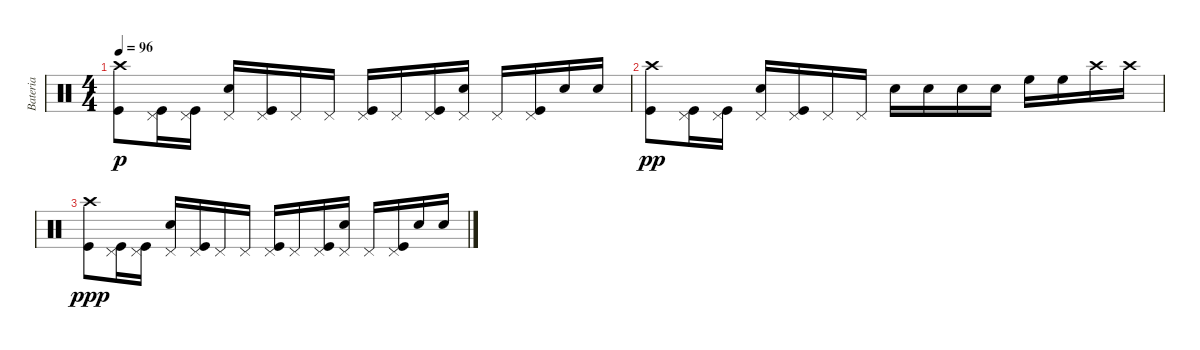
\track ("Bateria" "Bateria") {instrument percussion}
\staff {score}
\articulation defaults
\ts (4 4)
\tempo 96
\clef neutral
\ks c
("Kick (hit)" "Crash high (hit)").8{dy p} ("Kick (hit)" "Pedal Hi-Hat (hit)").16 ("Kick (hit)" "Pedal Hi-Hat (hit)").16 ("Snare (hit) 2" "Pedal Hi-Hat (hit)").16 ("Kick (hit)" "Pedal Hi-Hat (hit)").16 "Pedal Hi-Hat (hit)".16 "Pedal Hi-Hat (hit)".16 ("Kick (hit)" "Pedal Hi-Hat (hit)").16 "Pedal Hi-Hat (hit)".16 ("Kick (hit)" "Pedal Hi-Hat (hit)").16 ("Snare (hit) 2" "Pedal Hi-Hat (hit)").16 "Pedal Hi-Hat (hit)".16 ("Kick (hit)" "Pedal Hi-Hat (hit)").16 "Snare (hit) 2".16 "Snare (hit) 2".16 |
("Kick (hit)" "Crash high (hit)").8{dy pp} ("Kick (hit)" "Pedal Hi-Hat (hit)").16 ("Kick (hit)" "Pedal Hi-Hat (hit)").16 ("Snare (hit) 2" "Pedal Hi-Hat (hit)").16 ("Kick (hit)" "Pedal Hi-Hat (hit)").16 "Pedal Hi-Hat (hit)".16 "Pedal Hi-Hat (hit)".16 "Snare (hit) 2".16 "Snare (hit) 2".16 "Snare (hit) 2".16 "Snare (hit) 2".16 "High Floor Tom (hit)".16 "High Floor Tom (hit)".16 "Crash high (hit)".16 "Crash high (hit)".16 |
("Kick (hit)" "Crash high (hit)").8{dy ppp} ("Kick (hit)" "Pedal Hi-Hat (hit)").16 ("Kick (hit)" "Pedal Hi-Hat (hit)").16 ("Snare (hit) 2" "Pedal Hi-Hat (hit)").16 ("Kick (hit)" "Pedal Hi-Hat (hit)").16 "Pedal Hi-Hat (hit)".16 "Pedal Hi-Hat (hit)".16 ("Kick (hit)" "Pedal Hi-Hat (hit)").16 "Pedal Hi-Hat (hit)".16 ("Kick (hit)" "Pedal Hi-Hat (hit)").16 ("Snare (hit) 2" "Pedal Hi-Hat (hit)").16 "Pedal Hi-Hat (hit)".16 ("Kick (hit)" "Pedal Hi-Hat (hit)").16 "Snare (hit) 2".16 "Snare (hit) 2".16
